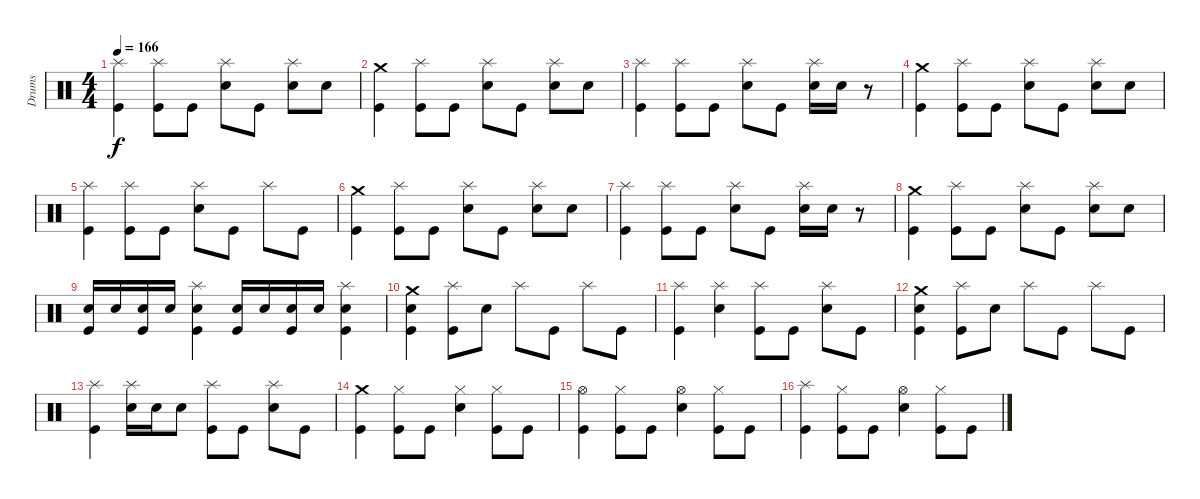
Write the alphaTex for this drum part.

\track ("Drums" "Drums") {instrument percussion}
\staff {score}
\articulation defaults
\ts (4 4)
\tempo 166
\clef neutral
\ks c
("Splash (hit)" "Kick (hit)").4{dy f} ("Splash (hit)" "Kick (hit)").8 "Kick (hit)".8 ("Splash (hit)" "Electric Snare (hit)").8 "Kick (hit)".8 ("Splash (hit)" "Electric Snare (hit)").8 "Electric Snare (hit)".8 |
("Crash medium (hit)" "Kick (hit)").4 ("Splash (hit)" "Kick (hit)").8 "Kick (hit)".8 ("Splash (hit)" "Electric Snare (hit)").8 "Kick (hit)".8 ("Splash (hit)" "Electric Snare (hit)").8 "Electric Snare (hit)".8 |
("Splash (hit)" "Kick (hit)").4 ("Splash (hit)" "Kick (hit)").8 "Kick (hit)".8 ("Splash (hit)" "Electric Snare (hit)").8 "Kick (hit)".8 ("Splash (hit)" "Electric Snare (hit)").16 "Electric Snare (hit)".16 r.8 |
("Crash medium (hit)" "Kick (hit)").4 ("Splash (hit)" "Kick (hit)").8 "Kick (hit)".8 ("Splash (hit)" "Electric Snare (hit)").8 "Kick (hit)".8 ("Splash (hit)" "Electric Snare (hit)").8 "Electric Snare (hit)".8 |
("Splash (hit)" "Kick (hit)").4 ("Splash (hit)" "Kick (hit)").8 "Kick (hit)".8 ("Splash (hit)" "Electric Snare (hit)").8 "Kick (hit)".8 "Splash (hit)".8 "Kick (hit)".8 |
("Crash medium (hit)" "Kick (hit)").4 ("Splash (hit)" "Kick (hit)").8 "Kick (hit)".8 ("Splash (hit)" "Electric Snare (hit)").8 "Kick (hit)".8 ("Splash (hit)" "Electric Snare (hit)").8 "Electric Snare (hit)".8 |
("Splash (hit)" "Kick (hit)").4 ("Splash (hit)" "Kick (hit)").8 "Kick (hit)".8 ("Splash (hit)" "Electric Snare (hit)").8 "Kick (hit)".8 ("Splash (hit)" "Electric Snare (hit)").16 "Electric Snare (hit)".16 r.8 |
("Crash medium (hit)" "Kick (hit)").4 ("Splash (hit)" "Kick (hit)").8 "Kick (hit)".8 ("Splash (hit)" "Electric Snare (hit)").8 "Kick (hit)".8 ("Splash (hit)" "Electric Snare (hit)").8 "Electric Snare (hit)".8 |
("Electric Snare (hit)" "Kick (hit)").16 "Electric Snare (hit)".16 ("Electric Snare (hit)" "Kick (hit)").16 "Electric Snare (hit)".16 ("Splash (hit)" "Electric Snare (hit)" "Kick (hit)").4 ("Electric Snare (hit)" "Kick (hit)").16 "Electric Snare (hit)".16 ("Electric Snare (hit)" "Kick (hit)").16 "Electric Snare (hit)".16 ("Splash (hit)" "Electric Snare (hit)" "Kick (hit)").4 |
("Crash medium (hit)" "Electric Snare (hit)" "Kick (hit)").4 ("Splash (hit)" "Kick (hit)").8 "Electric Snare (hit)".8 "Splash (hit)".8 "Kick (hit)".8 "Splash (hit)".8 "Kick (hit)".8 |
("Splash (hit)" "Kick (hit)").4 ("Splash (hit)" "Electric Snare (hit)").4 ("Splash (hit)" "Kick (hit)").8 "Kick (hit)".8 ("Splash (hit)" "Electric Snare (hit)").8 "Kick (hit)".8 |
("Crash medium (hit)" "Electric Snare (hit)" "Kick (hit)").4 ("Splash (hit)" "Kick (hit)").8 "Electric Snare (hit)".8 "Splash (hit)".8 "Kick (hit)".8 "Splash (hit)".8 "Kick (hit)".8 |
("Splash (hit)" "Kick (hit)").4 ("Splash (hit)" "Electric Snare (hit)").16 "Electric Snare (hit)".16 "Electric Snare (hit)".8 ("Splash (hit)" "Kick (hit)").8 "Kick (hit)".8 ("Splash (hit)" "Electric Snare (hit)").8 "Kick (hit)".8 |
("Crash medium (hit)" "Kick (hit)").4 ("Hi-Hat (closed)" "Kick (hit)").8 "Kick (hit)".8 ("Hi-Hat (closed)" "Electric Snare (hit)").4 ("Hi-Hat (closed)" "Kick (hit)").8 "Kick (hit)".8 |
("Hi-Hat (open)" "Kick (hit)").4 ("Hi-Hat (closed)" "Kick (hit)").8 "Kick (hit)".8 ("Hi-Hat (open)" "Electric Snare (hit)").4 ("Hi-Hat (closed)" "Kick (hit)").8 "Kick (hit)".8 |
("Splash (hit)" "Kick (hit)").4 ("Hi-Hat (closed)" "Kick (hit)").8 "Kick (hit)".8 ("Hi-Hat (open)" "Electric Snare (hit)").4 ("Hi-Hat (closed)" "Kick (hit)").8 "Kick (hit)".8
